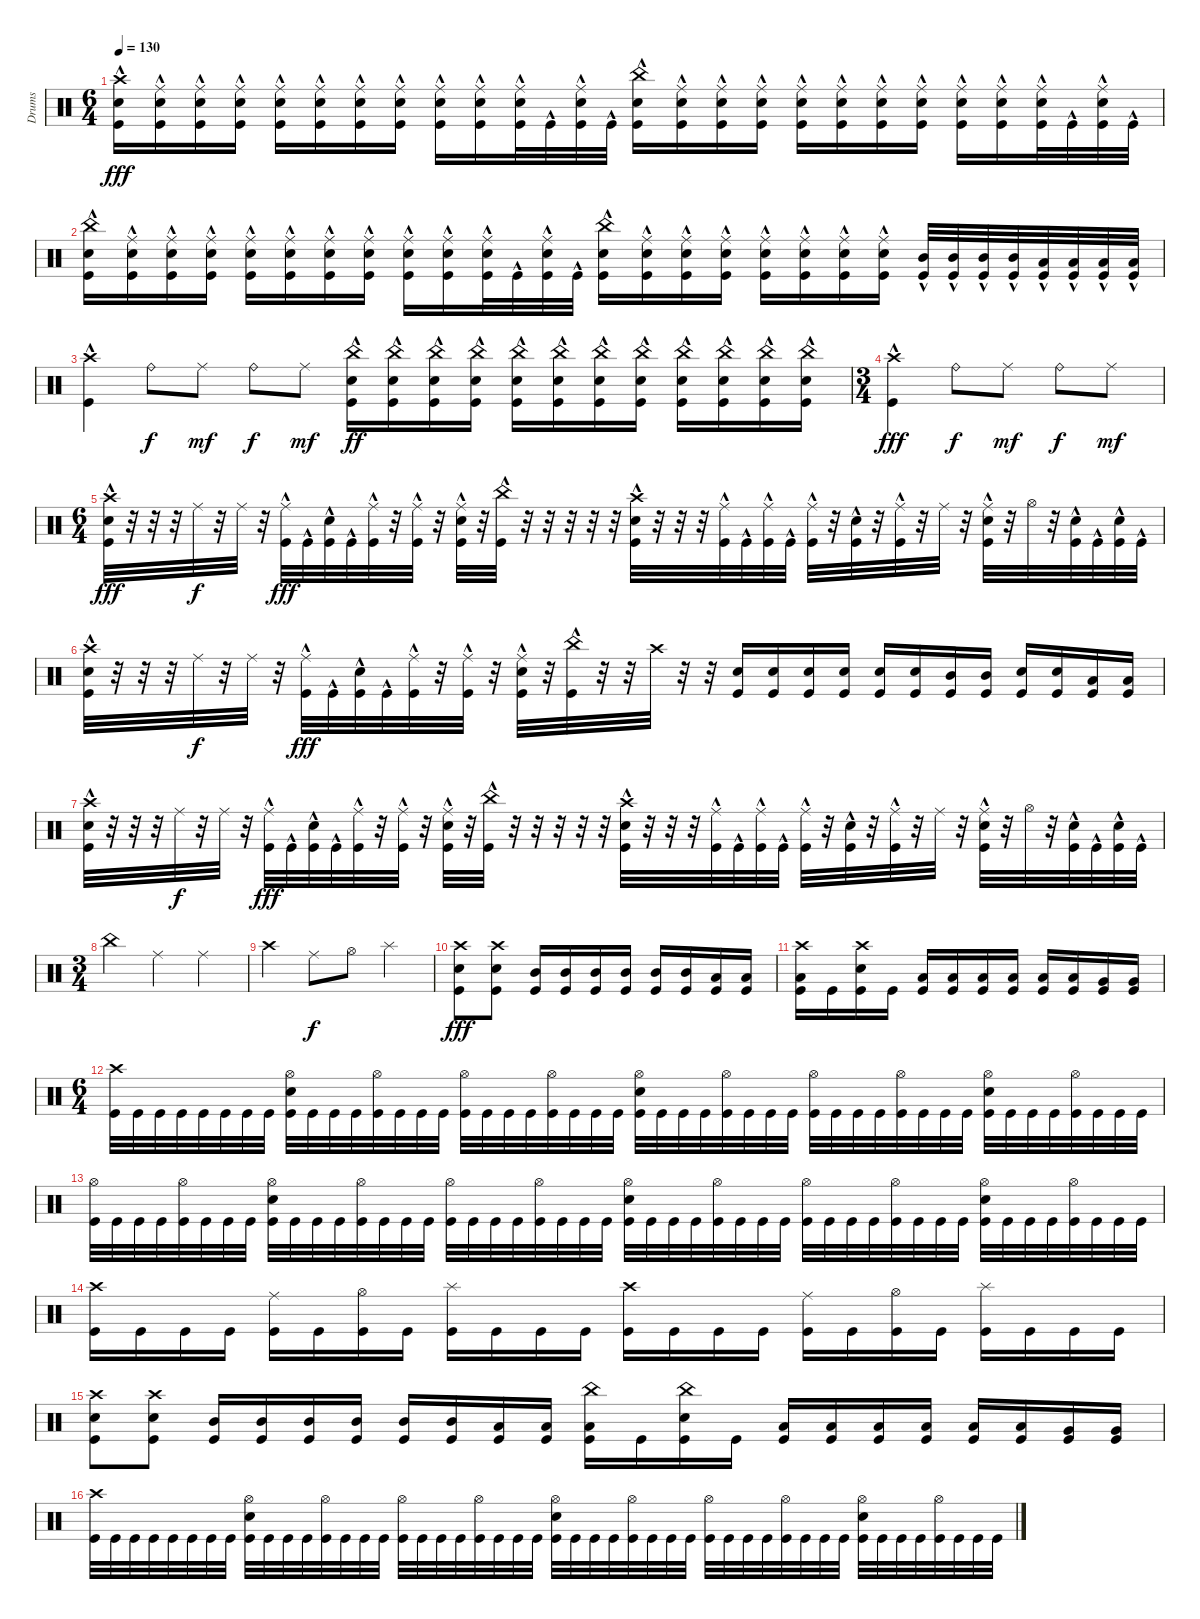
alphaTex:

\track ("Drums" "Drums") {instrument percussion}
\staff {score}
\articulation defaults
\ts (6 4)
\tempo 130
\clef neutral
\ks c
("Crash high (hit)" "Snare (hit) 2" "Kick (hit)"{hac}).16{dy fff} ("Ride (middle)" "Snare (hit) 2" "Kick (hit)"{hac}).16 ("Ride (middle)"{hac} "Snare (hit) 2" "Kick (hit)"{hac}).16 ("Ride (middle)" "Snare (hit) 2" "Kick (hit)"{hac}).16 ("Ride (middle)"{hac} "Snare (hit) 2" "Kick (hit)"{hac}).16 ("Ride (middle)" "Snare (hit) 2" "Kick (hit)"{hac}).16 ("Ride (middle)"{hac} "Snare (hit) 2" "Kick (hit)"{hac}).16 ("Ride (middle)" "Snare (hit) 2" "Kick (hit)"{hac}).16 ("Ride (middle)"{hac} "Snare (hit) 2" "Kick (hit)"{hac}).16 ("Ride (middle)" "Snare (hit) 2" "Kick (hit)"{hac}).16 ("Ride (middle)"{hac} "Snare (hit) 2" "Kick (hit)"{hac}).32 "Kick (hit)"{hac}.32 ("Ride (middle)" "Snare (hit) 2" "Kick (hit)"{hac}).32 "Kick (hit)"{hac}.32 ("China (hit)" "Snare (hit) 2" "Kick (hit)"{hac}).16 ("Ride (middle)" "Snare (hit) 2" "Kick (hit)"{hac}).16 ("Ride (middle)"{hac} "Snare (hit) 2" "Kick (hit)"{hac}).16 ("Ride (middle)" "Snare (hit) 2" "Kick (hit)"{hac}).16 ("Ride (middle)"{hac} "Snare (hit) 2" "Kick (hit)"{hac}).16 ("Ride (middle)" "Snare (hit) 2" "Kick (hit)"{hac}).16 ("Ride (middle)"{hac} "Snare (hit) 2" "Kick (hit)"{hac}).16 ("Ride (middle)" "Snare (hit) 2" "Kick (hit)"{hac}).16 ("Ride (middle)"{hac} "Snare (hit) 2" "Kick (hit)"{hac}).16 ("Ride (middle)" "Snare (hit) 2" "Kick (hit)"{hac}).16 ("Ride (middle)"{hac} "Snare (hit) 2" "Kick (hit)"{hac}).32 "Kick (hit)"{hac}.32 ("Ride (middle)" "Snare (hit) 2" "Kick (hit)"{hac}).32 "Kick (hit)"{hac}.32 |
("China (hit)" "Snare (hit) 2" "Kick (hit)"{hac}).16 ("Ride (middle)" "Snare (hit) 2" "Kick (hit)"{hac}).16 ("Ride (middle)"{hac} "Snare (hit) 2" "Kick (hit)"{hac}).16 ("Ride (middle)" "Snare (hit) 2" "Kick (hit)"{hac}).16 ("Ride (middle)"{hac} "Snare (hit) 2" "Kick (hit)"{hac}).16 ("Ride (middle)" "Snare (hit) 2" "Kick (hit)"{hac}).16 ("Ride (middle)"{hac} "Snare (hit) 2" "Kick (hit)"{hac}).16 ("Ride (middle)" "Snare (hit) 2" "Kick (hit)"{hac}).16 ("Ride (middle)"{hac} "Snare (hit) 2" "Kick (hit)"{hac}).16 ("Ride (middle)" "Snare (hit) 2" "Kick (hit)"{hac}).16 ("Ride (middle)"{hac} "Snare (hit) 2" "Kick (hit)"{hac}).32 "Kick (hit)"{hac}.32 ("Ride (middle)" "Snare (hit) 2" "Kick (hit)"{hac}).32 "Kick (hit)"{hac}.32 ("China (hit)" "Snare (hit) 2" "Kick (hit)"{hac}).16 ("Ride (middle)" "Snare (hit) 2" "Kick (hit)"{hac}).16 ("Ride (middle)"{hac} "Snare (hit) 2" "Kick (hit)"{hac}).16 ("Ride (middle)" "Snare (hit) 2" "Kick (hit)"{hac}).16 ("Ride (middle)"{hac} "Snare (hit) 2" "Kick (hit)"{hac}).16 ("Ride (middle)" "Snare (hit) 2" "Kick (hit)"{hac}).16 ("Ride (middle)"{hac} "Snare (hit) 2" "Kick (hit)"{hac}).16 ("Ride (middle)" "Snare (hit) 2" "Kick (hit)"{hac}).16 ("Mid Tom (hit)" "Kick (hit)"{hac}).32 ("Mid Tom (hit)" "Kick (hit)"{hac}).32 ("Mid Tom (hit)" "Kick (hit)"{hac}).32 ("Mid Tom (hit)" "Kick (hit)"{hac}).32 ("Low Tom (hit)" "Kick (hit)"{hac}).32 ("Low Tom (hit)" "Kick (hit)"{hac}).32 ("Low Tom (hit)" "Kick (hit)"{hac}).32 ("Low Tom (hit)" "Kick (hit)"{hac}).32 |
("Crash high (hit)" "Kick (hit)"{hac}).4 "Ride (bell)".8{dy f} "Ride (middle)".8{dy mf} "Ride (bell)".8{dy f} "Ride (middle)".8{dy mf} ("China (hit)" "Snare (hit) 2" "Kick (hit)"{hac}).16{dy ff} ("China (hit)" "Snare (hit) 2" "Kick (hit)"{hac}).16 ("China (hit)" "Snare (hit) 2" "Kick (hit)"{hac}).16 ("China (hit)" "Snare (hit) 2" "Kick (hit)"{hac}).16 ("China (hit)" "Snare (hit) 2" "Kick (hit)"{hac}).16 ("China (hit)" "Snare (hit) 2" "Kick (hit)"{hac}).16 ("China (hit)" "Snare (hit) 2" "Kick (hit)"{hac}).16 ("China (hit)" "Snare (hit) 2" "Kick (hit)"{hac}).16 ("China (hit)" "Snare (hit) 2" "Kick (hit)"{hac}).16 ("China (hit)" "Snare (hit) 2" "Kick (hit)"{hac}).16 ("China (hit)" "Snare (hit) 2" "Kick (hit)"{hac}).16 ("China (hit)" "Snare (hit) 2" "Kick (hit)"{hac}).16 |
\ts (3 4)
("Crash high (hit)" "Kick (hit)"{hac}).4{dy fff} "Ride (bell)".8{dy f} "Ride (middle)".8{dy mf} "Ride (bell)".8{dy f} "Ride (middle)".8{dy mf} |
\ts (6 4)
("Crash high (hit)" "Snare (hit) 2" "Kick (hit)"{hac}).32{dy fff} r.32 r.32 r.32 "Ride (middle)".32{dy f} r.32 "Ride (middle)".32 r.32 ("Ride (middle)" "Kick (hit)"{hac}).32{dy fff} "Kick (hit)"{hac}.32 ("Snare (hit) 2" "Kick (hit)"{hac}).32 "Kick (hit)"{hac}.32 ("Ride (middle)" "Kick (hit)"{hac}).32 r.32 ("Ride (middle)" "Kick (hit)"{hac}).32 r.32 ("Ride (middle)" "Snare (hit) 2" "Kick (hit)"{hac}).32 r.32 ("China (hit)" "Kick (hit)"{hac}).32 r.32 r.32 r.32 r.32 r.32 ("Crash high (hit)" "Snare (hit) 2" "Kick (hit)"{hac}).32 r.32 r.32 r.32 ("Ride (middle)" "Kick (hit)"{hac}).32 "Kick (hit)"{hac}.32 ("Ride (middle)" "Kick (hit)"{hac}).32 "Kick (hit)"{hac}.32 ("Ride (middle)" "Kick (hit)"{hac}).32 r.32 ("Snare (hit) 2" "Kick (hit)"{hac}).32 r.32 ("Ride (middle)" "Kick (hit)"{hac}).32 r.32 "Ride (middle)".32 r.32 ("Ride (middle)" "Snare (hit) 2" "Kick (hit)"{hac}).32 r.32 "Hi-Hat (open)".32 r.32 ("Snare (hit) 2" "Kick (hit)"{hac}).32 "Kick (hit)"{hac}.32 ("Snare (hit) 2" "Kick (hit)"{hac}).32 "Kick (hit)"{hac}.32 |
("Crash high (hit)" "Snare (hit) 2" "Kick (hit)"{hac}).32 r.32 r.32 r.32 "Ride (middle)".32{dy f} r.32 "Ride (middle)".32 r.32 ("Ride (middle)" "Kick (hit)"{hac}).32{dy fff} "Kick (hit)"{hac}.32 ("Snare (hit) 2" "Kick (hit)"{hac}).32 "Kick (hit)"{hac}.32 ("Ride (middle)" "Kick (hit)"{hac}).32 r.32 ("Ride (middle)" "Kick (hit)"{hac}).32 r.32 ("Ride (middle)" "Snare (hit) 2" "Kick (hit)"{hac}).32 r.32 ("China (hit)" "Kick (hit)"{hac}).32 r.32 r.32 "Crash high (hit)".32 r.32 r.32 ("Snare (hit) 2" "Kick (hit)").16 ("Snare (hit) 2" "Kick (hit)").16 ("Snare (hit) 2" "Kick (hit)").16 ("Snare (hit) 2" "Kick (hit)").16 ("Snare (hit) 2" "Kick (hit)").16 ("Snare (hit) 2" "Kick (hit)").16 ("Mid Tom (hit)" "Kick (hit)").16 ("Mid Tom (hit)" "Kick (hit)").16 ("Snare (hit) 2" "Kick (hit)").16 ("Snare (hit) 2" "Kick (hit)").16 ("Low Tom (hit)" "Kick (hit)").16 ("Low Tom (hit)" "Kick (hit)").16 |
("Crash high (hit)" "Snare (hit) 2" "Kick (hit)"{hac}).32 r.32 r.32 r.32 "Ride (middle)".32{dy f} r.32 "Ride (middle)".32 r.32 ("Ride (middle)" "Kick (hit)"{hac}).32{dy fff} "Kick (hit)"{hac}.32 ("Snare (hit) 2" "Kick (hit)"{hac}).32 "Kick (hit)"{hac}.32 ("Ride (middle)" "Kick (hit)"{hac}).32 r.32 ("Ride (middle)" "Kick (hit)"{hac}).32 r.32 ("Ride (middle)" "Snare (hit) 2" "Kick (hit)"{hac}).32 r.32 ("China (hit)" "Kick (hit)"{hac}).32 r.32 r.32 r.32 r.32 r.32 ("Crash high (hit)" "Snare (hit) 2" "Kick (hit)"{hac}).32 r.32 r.32 r.32 ("Ride (middle)" "Kick (hit)"{hac}).32 "Kick (hit)"{hac}.32 ("Ride (middle)" "Kick (hit)"{hac}).32 "Kick (hit)"{hac}.32 ("Ride (middle)" "Kick (hit)"{hac}).32 r.32 ("Snare (hit) 2" "Kick (hit)"{hac}).32 r.32 ("Ride (middle)" "Kick (hit)"{hac}).32 r.32 "Ride (middle)".32 r.32 ("Ride (middle)" "Snare (hit) 2" "Kick (hit)"{hac}).32 r.32 "Hi-Hat (open)".32 r.32 ("Snare (hit) 2" "Kick (hit)"{hac}).32 "Kick (hit)"{hac}.32 ("Snare (hit) 2" "Kick (hit)"{hac}).32 "Kick (hit)"{hac}.32 |
\ts (3 4)
"China (hit)".4 "Ride (middle)".4 "Ride (middle)".4 |
"Crash high (hit)".4 "Ride (middle)".8{dy f} "Hi-Hat (open)".8 "Splash (hit)".4 |
("Crash high (hit)" "Snare (hit) 2" "Kick (hit)").8{dy fff} ("Crash high (hit)" "Snare (hit) 2" "Kick (hit)").8 ("Mid Tom (hit)" "Kick (hit)").16 ("Mid Tom (hit)" "Kick (hit)").16 ("Mid Tom (hit)" "Kick (hit)").16 ("Mid Tom (hit)" "Kick (hit)").16 ("Mid Tom (hit)" "Kick (hit)").16 ("Mid Tom (hit)" "Kick (hit)").16 ("Low Tom (hit)" "Kick (hit)").16 ("Low Tom (hit)" "Kick (hit)").16 |
("Crash high (hit)" "Low Tom (hit)" "Kick (hit)").16 "Kick (hit)".16 ("Crash high (hit)" "Snare (hit) 2" "Kick (hit)").16 "Kick (hit)".16 ("Low Tom (hit)" "Kick (hit)").16 ("Low Tom (hit)" "Kick (hit)").16 ("Low Tom (hit)" "Kick (hit)").16 ("Low Tom (hit)" "Kick (hit)").16 ("Low Tom (hit)" "Kick (hit)").16 ("Low Tom (hit)" "Kick (hit)").16 ("Very Low Tom (hit)" "Kick (hit)").16 ("Very Low Tom (hit)" "Kick (hit)").16 |
\ts (6 4)
("Crash high (hit)" "Kick (hit)").32 "Kick (hit)".32 "Kick (hit)".32 "Kick (hit)".32 "Kick (hit)".32 "Kick (hit)".32 "Kick (hit)".32 "Kick (hit)".32 ("Hi-Hat (open)" "Snare (hit) 2" "Kick (hit)").32 "Kick (hit)".32 "Kick (hit)".32 "Kick (hit)".32 ("Hi-Hat (open)" "Kick (hit)").32 "Kick (hit)".32 "Kick (hit)".32 "Kick (hit)".32 ("Hi-Hat (open)" "Kick (hit)").32 "Kick (hit)".32 "Kick (hit)".32 "Kick (hit)".32 ("Hi-Hat (open)" "Kick (hit)").32 "Kick (hit)".32 "Kick (hit)".32 "Kick (hit)".32 ("Hi-Hat (open)" "Snare (hit) 2" "Kick (hit)").32 "Kick (hit)".32 "Kick (hit)".32 "Kick (hit)".32 ("Hi-Hat (open)" "Kick (hit)").32 "Kick (hit)".32 "Kick (hit)".32 "Kick (hit)".32 ("Hi-Hat (open)" "Kick (hit)").32 "Kick (hit)".32 "Kick (hit)".32 "Kick (hit)".32 ("Hi-Hat (open)" "Kick (hit)").32 "Kick (hit)".32 "Kick (hit)".32 "Kick (hit)".32 ("Hi-Hat (open)" "Snare (hit) 2" "Kick (hit)").32 "Kick (hit)".32 "Kick (hit)".32 "Kick (hit)".32 ("Hi-Hat (open)" "Kick (hit)").32 "Kick (hit)".32 "Kick (hit)".32 "Kick (hit)".32 |
("Hi-Hat (open)" "Kick (hit)").32 "Kick (hit)".32 "Kick (hit)".32 "Kick (hit)".32 ("Hi-Hat (open)" "Kick (hit)").32 "Kick (hit)".32 "Kick (hit)".32 "Kick (hit)".32 ("Hi-Hat (open)" "Snare (hit) 2" "Kick (hit)").32 "Kick (hit)".32 "Kick (hit)".32 "Kick (hit)".32 ("Hi-Hat (open)" "Kick (hit)").32 "Kick (hit)".32 "Kick (hit)".32 "Kick (hit)".32 ("Hi-Hat (open)" "Kick (hit)").32 "Kick (hit)".32 "Kick (hit)".32 "Kick (hit)".32 ("Hi-Hat (open)" "Kick (hit)").32 "Kick (hit)".32 "Kick (hit)".32 "Kick (hit)".32 ("Hi-Hat (open)" "Snare (hit) 2" "Kick (hit)").32 "Kick (hit)".32 "Kick (hit)".32 "Kick (hit)".32 ("Hi-Hat (open)" "Kick (hit)").32 "Kick (hit)".32 "Kick (hit)".32 "Kick (hit)".32 ("Hi-Hat (open)" "Kick (hit)").32 "Kick (hit)".32 "Kick (hit)".32 "Kick (hit)".32 ("Hi-Hat (open)" "Kick (hit)").32 "Kick (hit)".32 "Kick (hit)".32 "Kick (hit)".32 ("Hi-Hat (open)" "Snare (hit) 2" "Kick (hit)").32 "Kick (hit)".32 "Kick (hit)".32 "Kick (hit)".32 ("Hi-Hat (open)" "Kick (hit)").32 "Kick (hit)".32 "Kick (hit)".32 "Kick (hit)".32 |
("Crash high (hit)" "Kick (hit)").16 "Kick (hit)".16 "Kick (hit)".16 "Kick (hit)".16 ("Ride (middle)" "Kick (hit)").16 "Kick (hit)".16 ("Hi-Hat (open)" "Kick (hit)").16 "Kick (hit)".16 ("Splash (hit)" "Kick (hit)").16 "Kick (hit)".16 "Kick (hit)".16 "Kick (hit)".16 ("Crash high (hit)" "Kick (hit)").16 "Kick (hit)".16 "Kick (hit)".16 "Kick (hit)".16 ("Ride (middle)" "Kick (hit)").16 "Kick (hit)".16 ("Hi-Hat (open)" "Kick (hit)").16 "Kick (hit)".16 ("Splash (hit)" "Kick (hit)").16 "Kick (hit)".16 "Kick (hit)".16 "Kick (hit)".16 |
("Crash high (hit)" "Snare (hit) 2" "Kick (hit)").8 ("Crash high (hit)" "Snare (hit) 2" "Kick (hit)").8 ("Mid Tom (hit)" "Kick (hit)").16 ("Mid Tom (hit)" "Kick (hit)").16 ("Mid Tom (hit)" "Kick (hit)").16 ("Mid Tom (hit)" "Kick (hit)").16 ("Mid Tom (hit)" "Kick (hit)").16 ("Mid Tom (hit)" "Kick (hit)").16 ("Low Tom (hit)" "Kick (hit)").16 ("Low Tom (hit)" "Kick (hit)").16 ("China (hit)" "Low Tom (hit)" "Kick (hit)").16 "Kick (hit)".16 ("China (hit)" "Snare (hit) 2" "Kick (hit)").16 "Kick (hit)".16 ("Low Tom (hit)" "Kick (hit)").16 ("Low Tom (hit)" "Kick (hit)").16 ("Low Tom (hit)" "Kick (hit)").16 ("Low Tom (hit)" "Kick (hit)").16 ("Low Tom (hit)" "Kick (hit)").16 ("Low Tom (hit)" "Kick (hit)").16 ("Very Low Tom (hit)" "Kick (hit)").16 ("Very Low Tom (hit)" "Kick (hit)").16 |
("Crash high (hit)" "Kick (hit)").32 "Kick (hit)".32 "Kick (hit)".32 "Kick (hit)".32 "Kick (hit)".32 "Kick (hit)".32 "Kick (hit)".32 "Kick (hit)".32 ("Hi-Hat (open)" "Snare (hit) 2" "Kick (hit)").32 "Kick (hit)".32 "Kick (hit)".32 "Kick (hit)".32 ("Hi-Hat (open)" "Kick (hit)").32 "Kick (hit)".32 "Kick (hit)".32 "Kick (hit)".32 ("Hi-Hat (open)" "Kick (hit)").32 "Kick (hit)".32 "Kick (hit)".32 "Kick (hit)".32 ("Hi-Hat (open)" "Kick (hit)").32 "Kick (hit)".32 "Kick (hit)".32 "Kick (hit)".32 ("Hi-Hat (open)" "Snare (hit) 2" "Kick (hit)").32 "Kick (hit)".32 "Kick (hit)".32 "Kick (hit)".32 ("Hi-Hat (open)" "Kick (hit)").32 "Kick (hit)".32 "Kick (hit)".32 "Kick (hit)".32 ("Hi-Hat (open)" "Kick (hit)").32 "Kick (hit)".32 "Kick (hit)".32 "Kick (hit)".32 ("Hi-Hat (open)" "Kick (hit)").32 "Kick (hit)".32 "Kick (hit)".32 "Kick (hit)".32 ("Hi-Hat (open)" "Snare (hit) 2" "Kick (hit)").32 "Kick (hit)".32 "Kick (hit)".32 "Kick (hit)".32 ("Hi-Hat (open)" "Kick (hit)").32 "Kick (hit)".32 "Kick (hit)".32 "Kick (hit)".32
